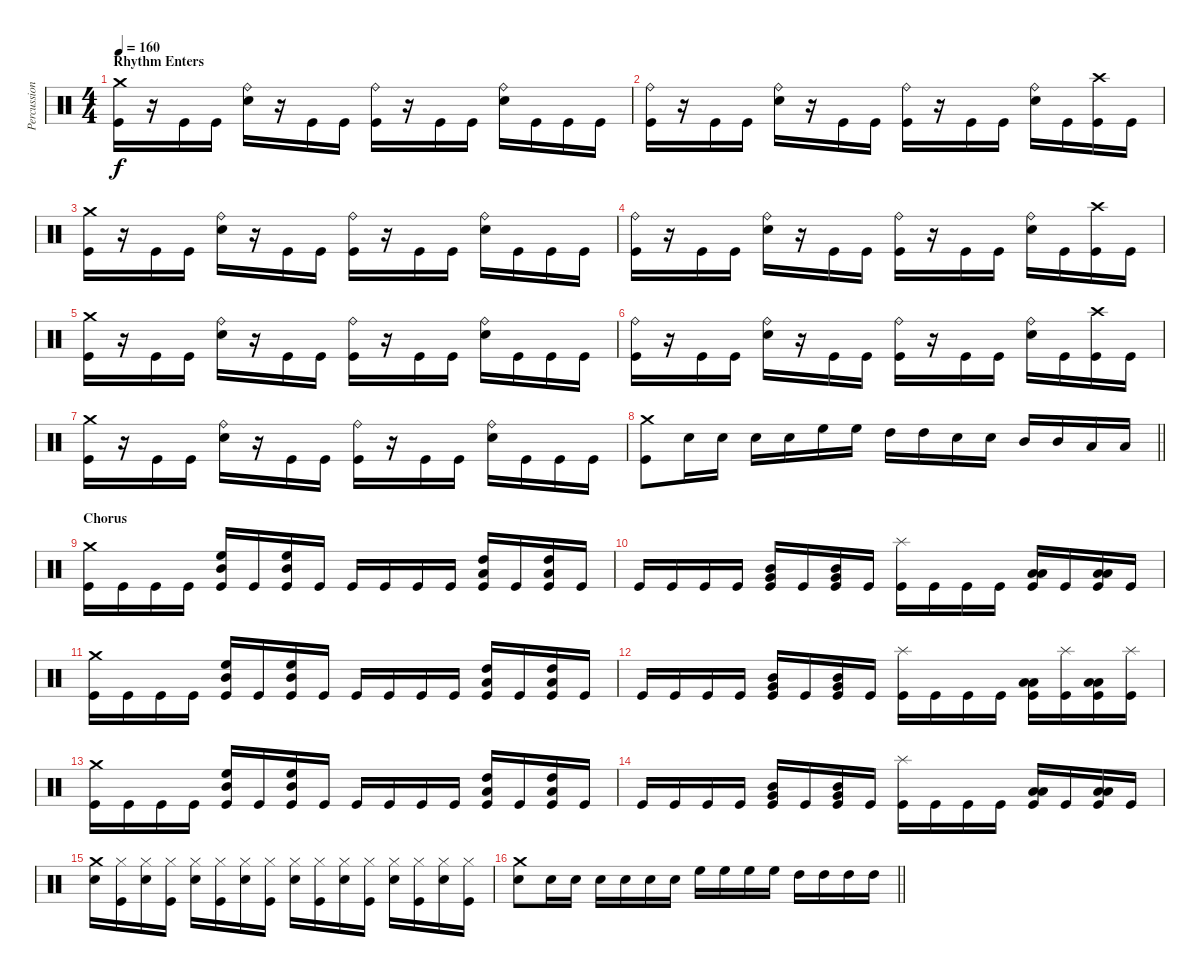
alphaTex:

\track ("Percussion" "Percussion") {instrument percussion}
\staff {score}
\articulation defaults
\ts (4 4)
\section ("" "Rhythm Enters")
\tempo 160
\clef neutral
\ks c
("Crash medium (hit)" "Kick (hit)").16{dy f} r.16 "Kick (hit)".16 "Kick (hit)".16 ("Ride (bell)" "Snare (hit) 2").16 r.16 "Kick (hit)".16 "Kick (hit)".16 ("Ride (bell)" "Kick (hit)").16 r.16 "Kick (hit)".16 "Kick (hit)".16 ("Ride (bell)" "Snare (hit) 2").16 "Kick (hit)".16 "Kick (hit)".16 "Kick (hit)".16 |
("Ride (bell)" "Kick (hit)").16 r.16 "Kick (hit)".16 "Kick (hit)".16 ("Ride (bell)" "Snare (hit) 2").16 r.16 "Kick (hit)".16 "Kick (hit)".16 ("Ride (bell)" "Kick (hit)").16 r.16 "Kick (hit)".16 "Kick (hit)".16 ("Ride (bell)" "Snare (hit) 2").16 "Kick (hit)".16 ("Crash high (hit)" "Kick (hit)").16 "Kick (hit)".16 |
("Crash medium (hit)" "Kick (hit)").16 r.16 "Kick (hit)".16 "Kick (hit)".16 ("Ride (bell)" "Snare (hit) 2").16 r.16 "Kick (hit)".16 "Kick (hit)".16 ("Ride (bell)" "Kick (hit)").16 r.16 "Kick (hit)".16 "Kick (hit)".16 ("Ride (bell)" "Snare (hit) 2").16 "Kick (hit)".16 "Kick (hit)".16 "Kick (hit)".16 |
("Ride (bell)" "Kick (hit)").16 r.16 "Kick (hit)".16 "Kick (hit)".16 ("Ride (bell)" "Snare (hit) 2").16 r.16 "Kick (hit)".16 "Kick (hit)".16 ("Ride (bell)" "Kick (hit)").16 r.16 "Kick (hit)".16 "Kick (hit)".16 ("Ride (bell)" "Snare (hit) 2").16 "Kick (hit)".16 ("Crash high (hit)" "Kick (hit)").16 "Kick (hit)".16 |
("Crash medium (hit)" "Kick (hit)").16 r.16 "Kick (hit)".16 "Kick (hit)".16 ("Ride (bell)" "Snare (hit) 2").16 r.16 "Kick (hit)".16 "Kick (hit)".16 ("Ride (bell)" "Kick (hit)").16 r.16 "Kick (hit)".16 "Kick (hit)".16 ("Ride (bell)" "Snare (hit) 2").16 "Kick (hit)".16 "Kick (hit)".16 "Kick (hit)".16 |
("Ride (bell)" "Kick (hit)").16 r.16 "Kick (hit)".16 "Kick (hit)".16 ("Ride (bell)" "Snare (hit) 2").16 r.16 "Kick (hit)".16 "Kick (hit)".16 ("Ride (bell)" "Kick (hit)").16 r.16 "Kick (hit)".16 "Kick (hit)".16 ("Ride (bell)" "Snare (hit) 2").16 "Kick (hit)".16 ("Crash high (hit)" "Kick (hit)").16 "Kick (hit)".16 |
("Crash medium (hit)" "Kick (hit)").16 r.16 "Kick (hit)".16 "Kick (hit)".16 ("Ride (bell)" "Snare (hit) 2").16 r.16 "Kick (hit)".16 "Kick (hit)".16 ("Ride (bell)" "Kick (hit)").16 r.16 "Kick (hit)".16 "Kick (hit)".16 ("Ride (bell)" "Snare (hit) 2").16 "Kick (hit)".16 "Kick (hit)".16 "Kick (hit)".16 |
\barLineRight lightlight
("Crash medium (hit)" "Kick (hit)").8 "Snare (hit) 2".16 "Snare (hit) 2".16 "Snare (hit) 2".16 "Snare (hit) 2".16 "High Floor Tom (hit)".16 "High Floor Tom (hit)".16 "High Tom (hit)".16 "High Tom (hit)".16 "Snare (hit) 2".16 "Snare (hit) 2".16 "Mid Tom (hit)".16 "Mid Tom (hit)".16 "Low Tom (hit)".16 "Low Tom (hit)".16 |
\section ("" "Chorus")
("Crash medium (hit)" "Kick (hit)").16 "Kick (hit)".16 "Kick (hit)".16 "Kick (hit)".16 ("Kick (hit)" "High Floor Tom (hit)" "Mid Tom (hit)").16 "Kick (hit)".16 ("Kick (hit)" "High Floor Tom (hit)" "Mid Tom (hit)").16 "Kick (hit)".16 "Kick (hit)".16 "Kick (hit)".16 "Kick (hit)".16 "Kick (hit)".16 ("Kick (hit)" "High Tom (hit)" "Low Tom (hit)").16 "Kick (hit)".16 ("Kick (hit)" "High Tom (hit)" "Low Tom (hit)").16 "Kick (hit)".16 |
"Kick (hit)".16 "Kick (hit)".16 "Kick (hit)".16 "Kick (hit)".16 ("Kick (hit)" "Mid Tom (hit)" "Very Low Tom (hit)").16 "Kick (hit)".16 ("Kick (hit)" "Mid Tom (hit)" "Very Low Tom (hit)").16 "Kick (hit)".16 ("Splash (hit)" "Kick (hit)").16 "Kick (hit)".16 "Kick (hit)".16 "Kick (hit)".16 ("Kick (hit)" "Low Tom (hit)" "Low Floor Tom (hit)").16 "Kick (hit)".16 ("Kick (hit)" "Low Tom (hit)" "Low Floor Tom (hit)").16 "Kick (hit)".16 |
("Crash medium (hit)" "Kick (hit)").16 "Kick (hit)".16 "Kick (hit)".16 "Kick (hit)".16 ("Kick (hit)" "High Floor Tom (hit)" "Mid Tom (hit)").16 "Kick (hit)".16 ("Kick (hit)" "High Floor Tom (hit)" "Mid Tom (hit)").16 "Kick (hit)".16 "Kick (hit)".16 "Kick (hit)".16 "Kick (hit)".16 "Kick (hit)".16 ("Kick (hit)" "High Tom (hit)" "Low Tom (hit)").16 "Kick (hit)".16 ("Kick (hit)" "High Tom (hit)" "Low Tom (hit)").16 "Kick (hit)".16 |
"Kick (hit)".16 "Kick (hit)".16 "Kick (hit)".16 "Kick (hit)".16 ("Kick (hit)" "Mid Tom (hit)" "Very Low Tom (hit)").16 "Kick (hit)".16 ("Kick (hit)" "Mid Tom (hit)" "Very Low Tom (hit)").16 "Kick (hit)".16 ("Splash (hit)" "Kick (hit)").16 "Kick (hit)".16 "Kick (hit)".16 "Kick (hit)".16 ("Kick (hit)" "Low Tom (hit)" "Low Floor Tom (hit)").16 ("Splash (hit)" "Kick (hit)").16 ("Kick (hit)" "Low Tom (hit)" "Low Floor Tom (hit)").16 ("Splash (hit)" "Kick (hit)").16 |
("Crash medium (hit)" "Kick (hit)").16 "Kick (hit)".16 "Kick (hit)".16 "Kick (hit)".16 ("Kick (hit)" "High Floor Tom (hit)" "Mid Tom (hit)").16 "Kick (hit)".16 ("Kick (hit)" "High Floor Tom (hit)" "Mid Tom (hit)").16 "Kick (hit)".16 "Kick (hit)".16 "Kick (hit)".16 "Kick (hit)".16 "Kick (hit)".16 ("Kick (hit)" "High Tom (hit)" "Low Tom (hit)").16 "Kick (hit)".16 ("Kick (hit)" "High Tom (hit)" "Low Tom (hit)").16 "Kick (hit)".16 |
"Kick (hit)".16 "Kick (hit)".16 "Kick (hit)".16 "Kick (hit)".16 ("Kick (hit)" "Mid Tom (hit)" "Very Low Tom (hit)").16 "Kick (hit)".16 ("Kick (hit)" "Mid Tom (hit)" "Very Low Tom (hit)").16 "Kick (hit)".16 ("Splash (hit)" "Kick (hit)").16 "Kick (hit)".16 "Kick (hit)".16 "Kick (hit)".16 ("Kick (hit)" "Low Tom (hit)" "Low Floor Tom (hit)").16 "Kick (hit)".16 ("Kick (hit)" "Low Tom (hit)" "Low Floor Tom (hit)").16 "Kick (hit)".16 |
("Crash medium (hit)" "Snare (hit) 2").16 ("Hi-Hat (closed)" "Kick (hit)").16 ("Hi-Hat (closed)" "Snare (hit) 2").16 ("Hi-Hat (closed)" "Kick (hit)").16 ("Hi-Hat (closed)" "Snare (hit) 2").16 ("Hi-Hat (closed)" "Kick (hit)").16 ("Hi-Hat (closed)" "Snare (hit) 2").16 ("Hi-Hat (closed)" "Kick (hit)").16 ("Hi-Hat (closed)" "Snare (hit) 2").16 ("Hi-Hat (closed)" "Kick (hit)").16 ("Hi-Hat (closed)" "Snare (hit) 2").16 ("Hi-Hat (closed)" "Kick (hit)").16 ("Hi-Hat (closed)" "Snare (hit) 2").16 ("Hi-Hat (closed)" "Kick (hit)").16 ("Hi-Hat (closed)" "Snare (hit) 2").16 ("Hi-Hat (closed)" "Kick (hit)").16 |
\barLineRight lightlight
("Crash medium (hit)" "Snare (hit) 2").8 "Snare (hit) 2".16 "Snare (hit) 2".16 "Snare (hit) 2".16 "Snare (hit) 2".16 "Snare (hit) 2".16 "Snare (hit) 2".16 "High Floor Tom (hit)".16 "High Floor Tom (hit)".16 "High Floor Tom (hit)".16 "High Floor Tom (hit)".16 "High Tom (hit)".16 "High Tom (hit)".16 "High Tom (hit)".16 "High Tom (hit)".16
